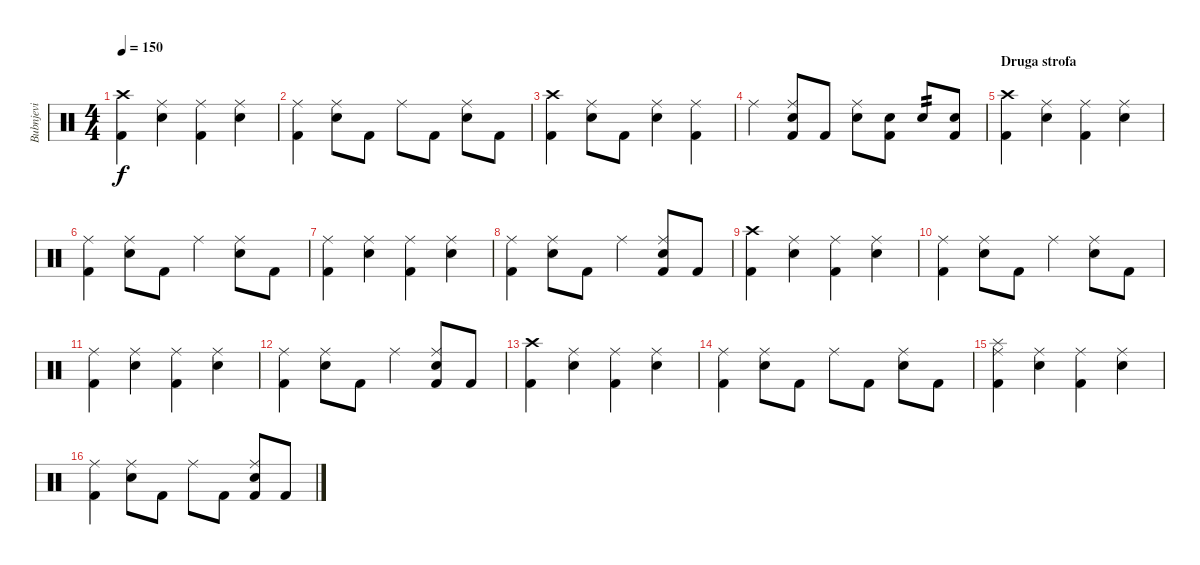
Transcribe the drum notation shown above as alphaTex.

\track ("Bubnjevi" "Bubnjevi") {instrument percussion}
\staff {score}
\articulation defaults
\ts (4 4)
\tempo 150
\clef neutral
\ks c
("Crash high (hit)" "Kick (hit) 2").4{dy f} ("Ride (middle)" "Snare (hit) 2").4 ("Ride (middle)" "Kick (hit) 2").4 ("Ride (middle)" "Snare (hit) 2").4 |
("Ride (middle)" "Kick (hit) 2").4 ("Ride (middle)" "Snare (hit) 2").8 "Kick (hit) 2".8 "Ride (middle)".8 "Kick (hit) 2".8 ("Ride (middle)" "Snare (hit) 2").8 "Kick (hit) 2".8 |
("Crash high (hit)" "Kick (hit) 2").4 ("Ride (middle)" "Snare (hit) 2").8 "Kick (hit) 2".8 ("Ride (middle)" "Snare (hit) 2").4 ("Ride (middle)" "Kick (hit) 2").4 |
"Ride (middle)".4 ("Ride (middle)" "Snare (hit) 2" "Kick (hit) 2").8 "Kick (hit) 2".8 ("Ride (middle)" "Snare (hit) 2").8 ("Snare (hit) 2" "Kick (hit) 2").8 "Snare (hit) 2".8{tp 2} ("Snare (hit) 2" "Kick (hit) 2").8 |
\section ("" "Druga strofa")
("Crash high (hit)" "Kick (hit) 2").4 ("Ride (middle)" "Snare (hit) 2").4 ("Ride (middle)" "Kick (hit) 2").4 ("Ride (middle)" "Snare (hit) 2").4 |
("Ride (middle)" "Kick (hit) 2").4 ("Ride (middle)" "Snare (hit) 2").8 "Kick (hit) 2".8 "Ride (middle)".4 ("Ride (middle)" "Snare (hit) 2").8 "Kick (hit) 2".8 |
("Ride (middle)" "Kick (hit) 2").4 ("Ride (middle)" "Snare (hit) 2").4 ("Ride (middle)" "Kick (hit) 2").4 ("Ride (middle)" "Snare (hit) 2").4 |
("Ride (middle)" "Kick (hit) 2").4 ("Ride (middle)" "Snare (hit) 2").8 "Kick (hit) 2".8 "Ride (middle)".4 ("Ride (middle)" "Snare (hit) 2" "Kick (hit) 2").8 "Kick (hit) 2".8 |
("Crash high (hit)" "Kick (hit) 2").4 ("Ride (middle)" "Snare (hit) 2").4 ("Ride (middle)" "Kick (hit) 2").4 ("Ride (middle)" "Snare (hit) 2").4 |
("Ride (middle)" "Kick (hit) 2").4 ("Ride (middle)" "Snare (hit) 2").8 "Kick (hit) 2".8 "Ride (middle)".4 ("Ride (middle)" "Snare (hit) 2").8 "Kick (hit) 2".8 |
("Ride (middle)" "Kick (hit) 2").4 ("Ride (middle)" "Snare (hit) 2").4 ("Ride (middle)" "Kick (hit) 2").4 ("Ride (middle)" "Snare (hit) 2").4 |
("Ride (middle)" "Kick (hit) 2").4 ("Ride (middle)" "Snare (hit) 2").8 "Kick (hit) 2".8 "Ride (middle)".4 ("Ride (middle)" "Snare (hit) 2" "Kick (hit) 2").8 "Kick (hit) 2".8 |
("Crash high (hit)" "Kick (hit) 2").4 ("Ride (middle)" "Snare (hit) 2").4 ("Ride (middle)" "Kick (hit) 2").4 ("Ride (middle)" "Snare (hit) 2").4 |
("Ride (middle)" "Kick (hit) 2").4 ("Ride (middle)" "Snare (hit) 2").8 "Kick (hit) 2".8 "Ride (middle)".8 "Kick (hit) 2".8 ("Ride (middle)" "Snare (hit) 2").8 "Kick (hit) 2".8 |
("Splash (hit)" "Ride (middle)" "Kick (hit) 2").4 ("Ride (middle)" "Snare (hit) 2").4 ("Ride (middle)" "Kick (hit) 2").4 ("Ride (middle)" "Snare (hit) 2").4 |
("Ride (middle)" "Kick (hit) 2").4 ("Ride (middle)" "Snare (hit) 2").8 "Kick (hit) 2".8 "Ride (middle)".8 "Kick (hit) 2".8 ("Ride (middle)" "Snare (hit) 2" "Kick (hit) 2").8 "Kick (hit) 2".8
